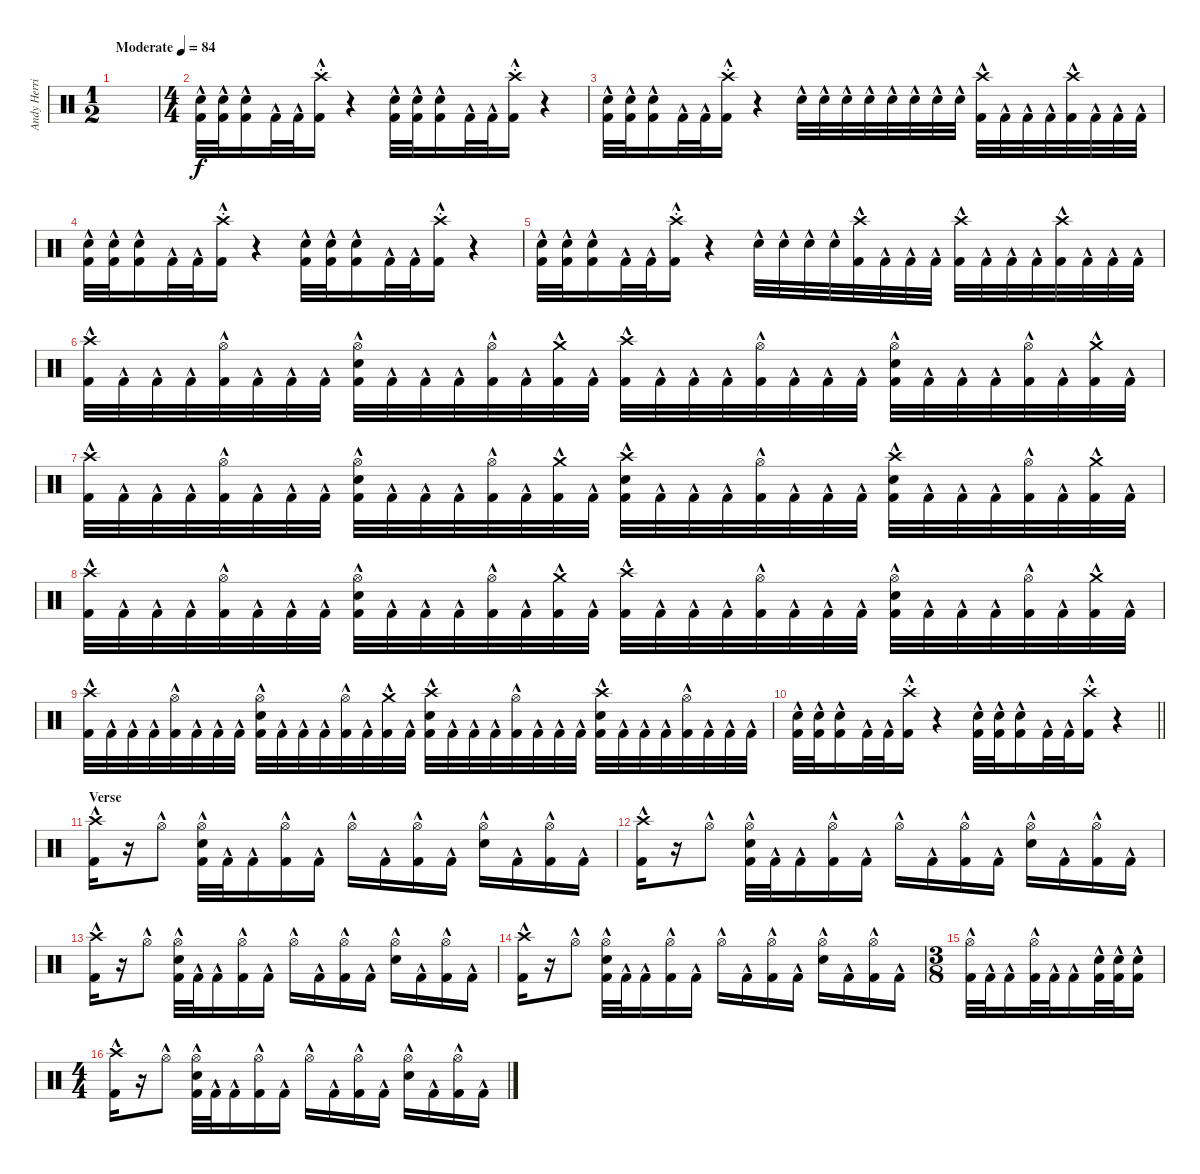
\track ("Andy Herrick" "Andy Herri") {instrument percussion}
\staff {score}
\articulation defaults
\ts (1 2)
\tempo (84 "Moderate")
\clef neutral
\ks c
|
\ts (4 4)
("Electric Snare (hit)"{hac} "Kick (hit) 2"{hac}).32 ("Electric Snare (hit)"{hac} "Kick (hit) 2"{hac}).32 ("Electric Snare (hit)"{hac} "Kick (hit) 2"{hac}).16 "Kick (hit) 2"{hac}.32 "Kick (hit) 2"{hac}.32 ("Crash high (hit)"{hac st} "Kick (hit) 2"{hac}).16 r.4 ("Electric Snare (hit)"{hac} "Kick (hit) 2"{hac}).32 ("Electric Snare (hit)"{hac} "Kick (hit) 2"{hac}).32 ("Electric Snare (hit)"{hac} "Kick (hit) 2"{hac}).16 "Kick (hit) 2"{hac}.32 "Kick (hit) 2"{hac}.32 ("Crash high (hit)"{hac st} "Kick (hit) 2"{hac}).16 r.4 |
("Electric Snare (hit)"{hac} "Kick (hit) 2"{hac}).32 ("Electric Snare (hit)"{hac} "Kick (hit) 2"{hac}).32 ("Electric Snare (hit)"{hac} "Kick (hit) 2"{hac}).16 "Kick (hit) 2"{hac}.32 "Kick (hit) 2"{hac}.32 ("Crash high (hit)"{hac st} "Kick (hit) 2"{hac}).16 r.4 "Electric Snare (hit)"{hac}.32 "Electric Snare (hit)"{hac}.32 "Electric Snare (hit)"{hac}.32 "Electric Snare (hit)"{hac}.32 "Electric Snare (hit)"{hac}.32 "Electric Snare (hit)"{hac}.32 "Electric Snare (hit)"{hac}.32 "Electric Snare (hit)"{hac}.32 ("Crash high (hit)"{hac} "Kick (hit) 2"{hac}).32 "Kick (hit) 2"{hac}.32 "Kick (hit) 2"{hac}.32 "Kick (hit) 2"{hac}.32 ("Crash high (hit)"{hac} "Kick (hit) 2"{hac}).32 "Kick (hit) 2"{hac}.32 "Kick (hit) 2"{hac}.32 "Kick (hit) 2"{hac}.32 |
("Electric Snare (hit)"{hac} "Kick (hit) 2"{hac}).32 ("Electric Snare (hit)"{hac} "Kick (hit) 2"{hac}).32 ("Electric Snare (hit)"{hac} "Kick (hit) 2"{hac}).16 "Kick (hit) 2"{hac}.32 "Kick (hit) 2"{hac}.32 ("Crash high (hit)"{hac st} "Kick (hit) 2"{hac}).16 r.4 ("Electric Snare (hit)"{hac} "Kick (hit) 2"{hac}).32 ("Electric Snare (hit)"{hac} "Kick (hit) 2"{hac}).32 ("Electric Snare (hit)"{hac} "Kick (hit) 2"{hac}).16 "Kick (hit) 2"{hac}.32 "Kick (hit) 2"{hac}.32 ("Crash high (hit)"{hac st} "Kick (hit) 2"{hac}).16 r.4 |
("Electric Snare (hit)"{hac} "Kick (hit) 2"{hac}).32 ("Electric Snare (hit)"{hac} "Kick (hit) 2"{hac}).32 ("Electric Snare (hit)"{hac} "Kick (hit) 2"{hac}).16 "Kick (hit) 2"{hac}.32 "Kick (hit) 2"{hac}.32 ("Crash high (hit)"{hac st} "Kick (hit) 2"{hac}).16 r.4 "Electric Snare (hit)"{hac}.32 "Electric Snare (hit)"{hac}.32 "Electric Snare (hit)"{hac}.32 "Electric Snare (hit)"{hac}.32 ("Crash high (hit)"{hac} "Kick (hit) 2"{hac}).32 "Kick (hit) 2"{hac}.32 "Kick (hit) 2"{hac}.32 "Kick (hit) 2"{hac}.32 ("Crash high (hit)"{hac} "Kick (hit) 2"{hac}).32 "Kick (hit) 2"{hac}.32 "Kick (hit) 2"{hac}.32 "Kick (hit) 2"{hac}.32 ("Crash high (hit)"{hac} "Kick (hit) 2"{hac}).32 "Kick (hit) 2"{hac}.32 "Kick (hit) 2"{hac}.32 "Kick (hit) 2"{hac}.32 |
("Crash high (hit)"{hac} "Kick (hit) 2"{hac}).32 "Kick (hit) 2"{hac}.32 "Kick (hit) 2"{hac}.32 "Kick (hit) 2"{hac}.32 ("Hi-Hat (open)"{hac} "Kick (hit) 2"{hac}).32 "Kick (hit) 2"{hac}.32 "Kick (hit) 2"{hac}.32 "Kick (hit) 2"{hac}.32 ("Hi-Hat (open)"{hac} "Electric Snare (hit)"{hac} "Kick (hit) 2"{hac}).32 "Kick (hit) 2"{hac}.32 "Kick (hit) 2"{hac}.32 "Kick (hit) 2"{hac}.32 ("Hi-Hat (open)"{hac} "Kick (hit) 2"{hac}).32 "Kick (hit) 2"{hac}.32 ("Crash medium (hit)"{hac} "Kick (hit) 2"{hac}).32 "Kick (hit) 2"{hac}.32 ("Crash high (hit)"{hac} "Kick (hit) 2"{hac}).32 "Kick (hit) 2"{hac}.32 "Kick (hit) 2"{hac}.32 "Kick (hit) 2"{hac}.32 ("Hi-Hat (open)"{hac} "Kick (hit) 2"{hac}).32 "Kick (hit) 2"{hac}.32 "Kick (hit) 2"{hac}.32 "Kick (hit) 2"{hac}.32 ("Hi-Hat (open)"{hac} "Electric Snare (hit)"{hac} "Kick (hit) 2"{hac}).32 "Kick (hit) 2"{hac}.32 "Kick (hit) 2"{hac}.32 "Kick (hit) 2"{hac}.32 ("Hi-Hat (open)"{hac} "Kick (hit) 2"{hac}).32 "Kick (hit) 2"{hac}.32 ("Crash medium (hit)"{hac} "Kick (hit) 2"{hac}).32 "Kick (hit) 2"{hac}.32 |
("Crash high (hit)"{hac} "Kick (hit) 2"{hac}).32 "Kick (hit) 2"{hac}.32 "Kick (hit) 2"{hac}.32 "Kick (hit) 2"{hac}.32 ("Hi-Hat (open)"{hac} "Kick (hit) 2"{hac}).32 "Kick (hit) 2"{hac}.32 "Kick (hit) 2"{hac}.32 "Kick (hit) 2"{hac}.32 ("Hi-Hat (open)"{hac} "Electric Snare (hit)"{hac} "Kick (hit) 2"{hac}).32 "Kick (hit) 2"{hac}.32 "Kick (hit) 2"{hac}.32 "Kick (hit) 2"{hac}.32 ("Hi-Hat (open)"{hac} "Kick (hit) 2"{hac}).32 "Kick (hit) 2"{hac}.32 ("Crash medium (hit)"{hac} "Kick (hit) 2"{hac}).32 "Kick (hit) 2"{hac}.32 ("Crash high (hit)"{hac} "Electric Snare (hit)"{hac} "Kick (hit) 2"{hac}).32 "Kick (hit) 2"{hac}.32 "Kick (hit) 2"{hac}.32 "Kick (hit) 2"{hac}.32 ("Hi-Hat (open)"{hac} "Kick (hit) 2"{hac}).32 "Kick (hit) 2"{hac}.32 "Kick (hit) 2"{hac}.32 "Kick (hit) 2"{hac}.32 ("Crash high (hit)"{hac} "Electric Snare (hit)"{hac} "Kick (hit) 2"{hac}).32 "Kick (hit) 2"{hac}.32 "Kick (hit) 2"{hac}.32 "Kick (hit) 2"{hac}.32 ("Hi-Hat (open)"{hac} "Kick (hit) 2"{hac}).32 "Kick (hit) 2"{hac}.32 ("Crash medium (hit)"{hac} "Kick (hit) 2"{hac}).32 "Kick (hit) 2"{hac}.32 |
("Crash high (hit)"{hac} "Kick (hit) 2"{hac}).32 "Kick (hit) 2"{hac}.32 "Kick (hit) 2"{hac}.32 "Kick (hit) 2"{hac}.32 ("Hi-Hat (open)"{hac} "Kick (hit) 2"{hac}).32 "Kick (hit) 2"{hac}.32 "Kick (hit) 2"{hac}.32 "Kick (hit) 2"{hac}.32 ("Hi-Hat (open)"{hac} "Electric Snare (hit)"{hac} "Kick (hit) 2"{hac}).32 "Kick (hit) 2"{hac}.32 "Kick (hit) 2"{hac}.32 "Kick (hit) 2"{hac}.32 ("Hi-Hat (open)"{hac} "Kick (hit) 2"{hac}).32 "Kick (hit) 2"{hac}.32 ("Crash medium (hit)"{hac} "Kick (hit) 2"{hac}).32 "Kick (hit) 2"{hac}.32 ("Crash high (hit)"{hac} "Kick (hit) 2"{hac}).32 "Kick (hit) 2"{hac}.32 "Kick (hit) 2"{hac}.32 "Kick (hit) 2"{hac}.32 ("Hi-Hat (open)"{hac} "Kick (hit) 2"{hac}).32 "Kick (hit) 2"{hac}.32 "Kick (hit) 2"{hac}.32 "Kick (hit) 2"{hac}.32 ("Hi-Hat (open)"{hac} "Electric Snare (hit)"{hac} "Kick (hit) 2"{hac}).32 "Kick (hit) 2"{hac}.32 "Kick (hit) 2"{hac}.32 "Kick (hit) 2"{hac}.32 ("Hi-Hat (open)"{hac} "Kick (hit) 2"{hac}).32 "Kick (hit) 2"{hac}.32 ("Crash medium (hit)"{hac} "Kick (hit) 2"{hac}).32 "Kick (hit) 2"{hac}.32 |
("Crash high (hit)"{hac} "Kick (hit) 2"{hac}).32 "Kick (hit) 2"{hac}.32 "Kick (hit) 2"{hac}.32 "Kick (hit) 2"{hac}.32 ("Hi-Hat (open)"{hac} "Kick (hit) 2"{hac}).32 "Kick (hit) 2"{hac}.32 "Kick (hit) 2"{hac}.32 "Kick (hit) 2"{hac}.32 ("Hi-Hat (open)"{hac} "Electric Snare (hit)"{hac} "Kick (hit) 2"{hac}).32 "Kick (hit) 2"{hac}.32 "Kick (hit) 2"{hac}.32 "Kick (hit) 2"{hac}.32 ("Hi-Hat (open)"{hac} "Kick (hit) 2"{hac}).32 "Kick (hit) 2"{hac}.32 ("Crash medium (hit)"{hac} "Kick (hit) 2"{hac}).32 "Kick (hit) 2"{hac}.32 ("Crash high (hit)"{hac} "Electric Snare (hit)"{hac} "Kick (hit) 2"{hac}).32 "Kick (hit) 2"{hac}.32 "Kick (hit) 2"{hac}.32 "Kick (hit) 2"{hac}.32 ("Hi-Hat (open)"{hac} "Kick (hit) 2"{hac}).32 "Kick (hit) 2"{hac}.32 "Kick (hit) 2"{hac}.32 "Kick (hit) 2"{hac}.32 ("Crash high (hit)"{hac} "Electric Snare (hit)"{hac} "Kick (hit) 2"{hac}).32 "Kick (hit) 2"{hac}.32 "Kick (hit) 2"{hac}.32 "Kick (hit) 2"{hac}.32 ("Hi-Hat (open)"{hac} "Kick (hit) 2"{hac}).32 "Kick (hit) 2"{hac}.32 "Kick (hit) 2"{hac}.32 "Kick (hit) 2"{hac}.32 |
\barLineRight lightlight
("Electric Snare (hit)"{hac} "Kick (hit) 2"{hac}).32 ("Electric Snare (hit)"{hac} "Kick (hit) 2"{hac}).32 ("Electric Snare (hit)"{hac} "Kick (hit) 2"{hac}).16 "Kick (hit) 2"{hac}.32 "Kick (hit) 2"{hac}.32 ("Crash high (hit)"{hac st} "Kick (hit) 2"{hac}).16 r.4 ("Electric Snare (hit)"{hac} "Kick (hit) 2"{hac}).32 ("Electric Snare (hit)"{hac} "Kick (hit) 2"{hac}).32 ("Electric Snare (hit)"{hac} "Kick (hit) 2"{hac}).16 "Kick (hit) 2"{hac}.32 "Kick (hit) 2"{hac}.32 ("Crash high (hit)"{hac st} "Kick (hit) 2"{hac}).16 r.4 |
\section ("" "Verse")
("Crash high (hit)"{hac} "Kick (hit) 2"{hac}).16 r.16 "Hi-Hat (open)"{hac}.8 ("Hi-Hat (open)"{hac} "Electric Snare (hit)"{hac} "Kick (hit) 2"{hac}).32 "Kick (hit) 2"{hac}.32 "Kick (hit) 2"{hac}.16 ("Hi-Hat (open)"{hac} "Kick (hit) 2"{hac}).16 "Kick (hit) 2"{hac}.16 "Hi-Hat (open)"{hac}.16 "Kick (hit) 2"{hac}.16 ("Hi-Hat (open)"{hac} "Kick (hit) 2"{hac}).16 "Kick (hit) 2"{hac}.16 ("Hi-Hat (open)"{hac} "Electric Snare (hit)"{hac}).16 "Kick (hit) 2"{hac}.16 ("Hi-Hat (open)"{hac} "Kick (hit) 2"{hac}).16 "Kick (hit) 2"{hac}.16 |
("Crash high (hit)"{hac} "Kick (hit) 2"{hac}).16 r.16 "Hi-Hat (open)"{hac}.8 ("Hi-Hat (open)"{hac} "Electric Snare (hit)"{hac} "Kick (hit) 2"{hac}).32 "Kick (hit) 2"{hac}.32 "Kick (hit) 2"{hac}.16 ("Hi-Hat (open)"{hac} "Kick (hit) 2"{hac}).16 "Kick (hit) 2"{hac}.16 "Hi-Hat (open)"{hac}.16 "Kick (hit) 2"{hac}.16 ("Hi-Hat (open)"{hac} "Kick (hit) 2"{hac}).16 "Kick (hit) 2"{hac}.16 ("Hi-Hat (open)"{hac} "Electric Snare (hit)"{hac}).16 "Kick (hit) 2"{hac}.16 ("Hi-Hat (open)"{hac} "Kick (hit) 2"{hac}).16 "Kick (hit) 2"{hac}.16 |
("Crash high (hit)"{hac} "Kick (hit) 2"{hac}).16 r.16 "Hi-Hat (open)"{hac}.8 ("Hi-Hat (open)"{hac} "Electric Snare (hit)"{hac} "Kick (hit) 2"{hac}).32 "Kick (hit) 2"{hac}.32 "Kick (hit) 2"{hac}.16 ("Hi-Hat (open)"{hac} "Kick (hit) 2"{hac}).16 "Kick (hit) 2"{hac}.16 "Hi-Hat (open)"{hac}.16 "Kick (hit) 2"{hac}.16 ("Hi-Hat (open)"{hac} "Kick (hit) 2"{hac}).16 "Kick (hit) 2"{hac}.16 ("Hi-Hat (open)"{hac} "Electric Snare (hit)"{hac}).16 "Kick (hit) 2"{hac}.16 ("Hi-Hat (open)"{hac} "Kick (hit) 2"{hac}).16 "Kick (hit) 2"{hac}.16 |
("Crash high (hit)"{hac} "Kick (hit) 2"{hac}).16 r.16 "Hi-Hat (open)"{hac}.8 ("Hi-Hat (open)"{hac} "Electric Snare (hit)"{hac} "Kick (hit) 2"{hac}).32 "Kick (hit) 2"{hac}.32 "Kick (hit) 2"{hac}.16 ("Hi-Hat (open)"{hac} "Kick (hit) 2"{hac}).16 "Kick (hit) 2"{hac}.16 "Hi-Hat (open)"{hac}.16 "Kick (hit) 2"{hac}.16 ("Hi-Hat (open)"{hac} "Kick (hit) 2"{hac}).16 "Kick (hit) 2"{hac}.16 ("Hi-Hat (open)"{hac} "Electric Snare (hit)"{hac}).16 "Kick (hit) 2"{hac}.16 ("Hi-Hat (open)"{hac} "Kick (hit) 2"{hac}).16 "Kick (hit) 2"{hac}.16 |
\ts (3 8)
("Hi-Hat (open)"{hac} "Kick (hit) 2"{hac}).32 "Kick (hit) 2"{hac}.32 "Kick (hit) 2"{hac}.16 ("Hi-Hat (open)"{hac} "Kick (hit) 2"{hac}).32 "Kick (hit) 2"{hac}.32 "Kick (hit) 2"{hac}.16 ("Electric Snare (hit)"{hac} "Kick (hit) 2"{hac}).32 ("Electric Snare (hit)"{hac} "Kick (hit) 2"{hac}).32 ("Electric Snare (hit)"{hac} "Kick (hit) 2"{hac}).16 |
\ts (4 4)
("Crash high (hit)"{hac} "Kick (hit) 2"{hac}).16 r.16 "Hi-Hat (open)"{hac}.8 ("Hi-Hat (open)"{hac} "Electric Snare (hit)"{hac} "Kick (hit) 2"{hac}).32 "Kick (hit) 2"{hac}.32 "Kick (hit) 2"{hac}.16 ("Hi-Hat (open)"{hac} "Kick (hit) 2"{hac}).16 "Kick (hit) 2"{hac}.16 "Hi-Hat (open)"{hac}.16 "Kick (hit) 2"{hac}.16 ("Hi-Hat (open)"{hac} "Kick (hit) 2"{hac}).16 "Kick (hit) 2"{hac}.16 ("Hi-Hat (open)"{hac} "Electric Snare (hit)"{hac}).16 "Kick (hit) 2"{hac}.16 ("Hi-Hat (open)"{hac} "Kick (hit) 2"{hac}).16 "Kick (hit) 2"{hac}.16
